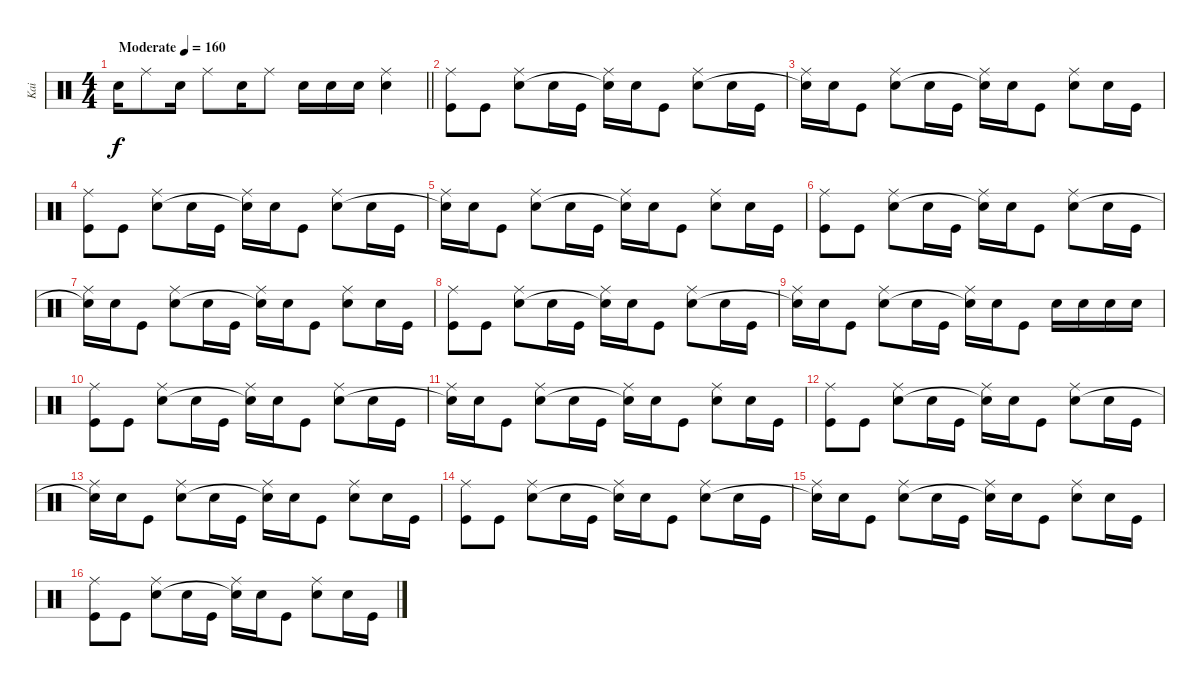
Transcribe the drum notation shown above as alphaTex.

\track ("Kai" "Kai") {instrument percussion}
\staff {score}
\articulation defaults
\ts (4 4)
\tempo (160 "Moderate")
\clef neutral
\barLineRight lightlight
\ks c "Snare (hit) 2".16{dy f} "Ride (middle)".8 "Snare (hit) 2".16 "Ride (middle)".8 "Snare (hit) 2".16 "Ride (middle)".8 "Snare (hit) 2".16 "Snare (hit) 2".16 "Snare (hit) 2".16
("Ride (middle)" "Snare (hit) 2").4 |
\section ("" "")
("Ride (middle)" "Kick (hit)").8 "Kick (hit)".8 ("Ride (middle)" "Snare (hit) 2").8 "Snare (hit) 2".16 "Kick (hit)".16 ("Ride (middle)" "Snare (hit)"{t}).16 "Snare (hit) 2".16 "Kick (hit)".8 ("Ride (middle)" "Snare (hit) 2").8 "Snare (hit) 2".16 "Kick (hit)".16 |
("Ride (middle)" "Snare (hit)"{t}).16 "Snare (hit) 2".16 "Kick (hit)".8 ("Ride (middle)" "Snare (hit) 2").8 "Snare (hit) 2".16 "Kick (hit)".16 ("Ride (middle)" "Snare (hit)"{t}).16 "Snare (hit) 2".16 "Kick (hit)".8 ("Ride (middle)" "Snare (hit) 2").8 "Snare (hit) 2".16 "Kick (hit)".16 |
("Ride (middle)" "Kick (hit)").8 "Kick (hit)".8 ("Ride (middle)" "Snare (hit) 2").8 "Snare (hit) 2".16 "Kick (hit)".16 ("Ride (middle)" "Snare (hit)"{t}).16 "Snare (hit) 2".16 "Kick (hit)".8 ("Ride (middle)" "Snare (hit) 2").8 "Snare (hit) 2".16 "Kick (hit)".16 |
("Ride (middle)" "Snare (hit)"{t}).16 "Snare (hit) 2".16 "Kick (hit)".8 ("Ride (middle)" "Snare (hit) 2").8 "Snare (hit) 2".16 "Kick (hit)".16 ("Ride (middle)" "Snare (hit)"{t}).16 "Snare (hit) 2".16 "Kick (hit)".8 ("Ride (middle)" "Snare (hit) 2").8 "Snare (hit) 2".16 "Kick (hit)".16 |
("Ride (middle)" "Kick (hit)").8 "Kick (hit)".8 ("Ride (middle)" "Snare (hit) 2").8 "Snare (hit) 2".16 "Kick (hit)".16 ("Ride (middle)" "Snare (hit)"{t}).16 "Snare (hit) 2".16 "Kick (hit)".8 ("Ride (middle)" "Snare (hit) 2").8 "Snare (hit) 2".16 "Kick (hit)".16 |
("Ride (middle)" "Snare (hit)"{t}).16 "Snare (hit) 2".16 "Kick (hit)".8 ("Ride (middle)" "Snare (hit) 2").8 "Snare (hit) 2".16 "Kick (hit)".16 ("Ride (middle)" "Snare (hit)"{t}).16 "Snare (hit) 2".16 "Kick (hit)".8 ("Ride (middle)" "Snare (hit) 2").8 "Snare (hit) 2".16 "Kick (hit)".16 |
("Ride (middle)" "Kick (hit)").8 "Kick (hit)".8 ("Ride (middle)" "Snare (hit) 2").8 "Snare (hit) 2".16 "Kick (hit)".16 ("Ride (middle)" "Snare (hit)"{t}).16 "Snare (hit) 2".16 "Kick (hit)".8 ("Ride (middle)" "Snare (hit) 2").8 "Snare (hit) 2".16 "Kick (hit)".16 |
("Ride (middle)" "Snare (hit)"{t}).16 "Snare (hit) 2".16 "Kick (hit)".8 ("Ride (middle)" "Snare (hit) 2").8 "Snare (hit) 2".16 "Kick (hit)".16 ("Ride (middle)" "Snare (hit)"{t}).16 "Snare (hit) 2".16 "Kick (hit)".8 "Snare (hit) 2".16 "Snare (hit) 2".16 "Snare (hit) 2".16 "Snare (hit) 2".16 |
("Ride (middle)" "Kick (hit)").8 "Kick (hit)".8 ("Ride (middle)" "Snare (hit) 2").8 "Snare (hit) 2".16 "Kick (hit)".16 ("Ride (middle)" "Snare (hit)"{t}).16 "Snare (hit) 2".16 "Kick (hit)".8 ("Ride (middle)" "Snare (hit) 2").8 "Snare (hit) 2".16 "Kick (hit)".16 |
("Ride (middle)" "Snare (hit)"{t}).16 "Snare (hit) 2".16 "Kick (hit)".8 ("Ride (middle)" "Snare (hit) 2").8 "Snare (hit) 2".16 "Kick (hit)".16 ("Ride (middle)" "Snare (hit)"{t}).16 "Snare (hit) 2".16 "Kick (hit)".8 ("Ride (middle)" "Snare (hit) 2").8 "Snare (hit) 2".16 "Kick (hit)".16 |
("Ride (middle)" "Kick (hit)").8 "Kick (hit)".8 ("Ride (middle)" "Snare (hit) 2").8 "Snare (hit) 2".16 "Kick (hit)".16 ("Ride (middle)" "Snare (hit)"{t}).16 "Snare (hit) 2".16 "Kick (hit)".8 ("Ride (middle)" "Snare (hit) 2").8 "Snare (hit) 2".16 "Kick (hit)".16 |
("Ride (middle)" "Snare (hit)"{t}).16 "Snare (hit) 2".16 "Kick (hit)".8 ("Ride (middle)" "Snare (hit) 2").8 "Snare (hit) 2".16 "Kick (hit)".16 ("Ride (middle)" "Snare (hit)"{t}).16 "Snare (hit) 2".16 "Kick (hit)".8 ("Ride (middle)" "Snare (hit) 2").8 "Snare (hit) 2".16 "Kick (hit)".16 |
("Ride (middle)" "Kick (hit)").8 "Kick (hit)".8 ("Ride (middle)" "Snare (hit) 2").8 "Snare (hit) 2".16 "Kick (hit)".16 ("Ride (middle)" "Snare (hit)"{t}).16 "Snare (hit) 2".16 "Kick (hit)".8 ("Ride (middle)" "Snare (hit) 2").8 "Snare (hit) 2".16 "Kick (hit)".16 |
("Ride (middle)" "Snare (hit)"{t}).16 "Snare (hit) 2".16 "Kick (hit)".8 ("Ride (middle)" "Snare (hit) 2").8 "Snare (hit) 2".16 "Kick (hit)".16 ("Ride (middle)" "Snare (hit)"{t}).16 "Snare (hit) 2".16 "Kick (hit)".8 ("Ride (middle)" "Snare (hit) 2").8 "Snare (hit) 2".16 "Kick (hit)".16 |
("Ride (middle)" "Kick (hit)").8 "Kick (hit)".8 ("Ride (middle)" "Snare (hit) 2").8 "Snare (hit) 2".16 "Kick (hit)".16 ("Ride (middle)" "Snare (hit)"{t}).16 "Snare (hit) 2".16 "Kick (hit)".8 ("Ride (middle)" "Snare (hit) 2").8 "Snare (hit) 2".16 "Kick (hit)".16
